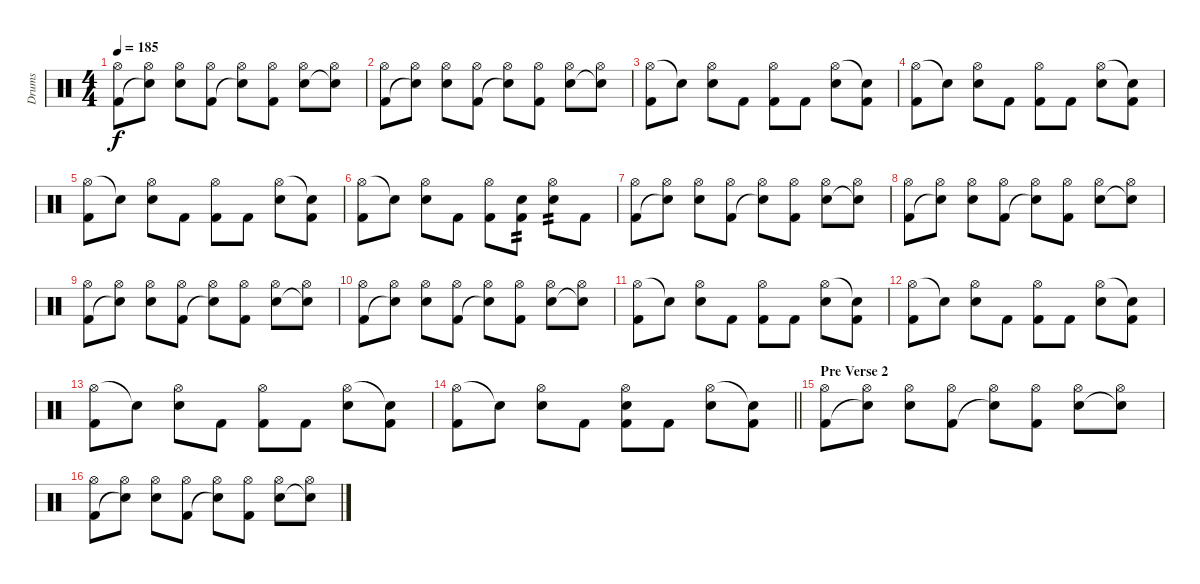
\track ("Drums" "Drums") {instrument percussion}
\staff {score}
\articulation defaults
\ts (4 4)
\tempo 185
\clef neutral
\ks c
("Hi-Hat (open)" "Kick (hit) 2").8{dy f} ("Hi-Hat (open)" "Snare (hit)"{t}).8 ("Hi-Hat (open)" "Electric Snare (hit)").8 ("Hi-Hat (open)" "Kick (hit) 2").8 ("Hi-Hat (open)" "Snare (hit)"{t}).8 ("Hi-Hat (open)" "Kick (hit) 2").8 ("Hi-Hat (open)" "Electric Snare (hit)").8 ("Hi-Hat (open)" "Snare (hit)"{t}).8 |
("Hi-Hat (open)" "Kick (hit) 2").8 ("Hi-Hat (open)" "Snare (hit)"{t}).8 ("Hi-Hat (open)" "Electric Snare (hit)").8 ("Hi-Hat (open)" "Kick (hit) 2").8 ("Hi-Hat (open)" "Snare (hit)"{t}).8 ("Hi-Hat (open)" "Kick (hit) 2").8 ("Hi-Hat (open)" "Electric Snare (hit)").8 ("Hi-Hat (open)" "Snare (hit)"{t}).8 |
("Hi-Hat (open)" "Kick (hit) 2").8 "Snare (hit)"{t}.8 ("Hi-Hat (open)" "Electric Snare (hit)").8 "Kick (hit) 2".8 ("Hi-Hat (open)" "Kick (hit) 2").8 "Kick (hit) 2".8 ("Hi-Hat (open)" "Electric Snare (hit)").8 ("Snare (hit)"{t} "Kick (hit) 2").8 |
("Hi-Hat (open)" "Kick (hit) 2").8 "Snare (hit)"{t}.8 ("Hi-Hat (open)" "Electric Snare (hit)").8 "Kick (hit) 2".8 ("Hi-Hat (open)" "Kick (hit) 2").8 "Kick (hit) 2".8 ("Hi-Hat (open)" "Electric Snare (hit)").8 ("Snare (hit)"{t} "Kick (hit) 2").8 |
("Hi-Hat (open)" "Kick (hit) 2").8 "Snare (hit)"{t}.8 ("Hi-Hat (open)" "Electric Snare (hit)").8 "Kick (hit) 2".8 ("Hi-Hat (open)" "Kick (hit) 2").8 "Kick (hit) 2".8 ("Hi-Hat (open)" "Electric Snare (hit)").8 ("Snare (hit)"{t} "Kick (hit) 2").8 |
("Hi-Hat (open)" "Kick (hit) 2").8 "Snare (hit)"{t}.8 ("Hi-Hat (open)" "Electric Snare (hit)").8 "Kick (hit) 2".8 ("Hi-Hat (open)" "Kick (hit) 2").8 ("Electric Snare (hit)" "Kick (hit) 2").8{tp 2} ("Hi-Hat (open)" "Electric Snare (hit)").8{tp 2} "Kick (hit) 2".8 |
("Hi-Hat (open)" "Kick (hit) 2").8 ("Hi-Hat (open)" "Snare (hit)"{t}).8 ("Hi-Hat (open)" "Electric Snare (hit)").8 ("Hi-Hat (open)" "Kick (hit) 2").8 ("Hi-Hat (open)" "Snare (hit)"{t}).8 ("Hi-Hat (open)" "Kick (hit) 2").8 ("Hi-Hat (open)" "Electric Snare (hit)").8 ("Hi-Hat (open)" "Snare (hit)"{t}).8 |
("Hi-Hat (open)" "Kick (hit) 2").8 ("Hi-Hat (open)" "Snare (hit)"{t}).8 ("Hi-Hat (open)" "Electric Snare (hit)").8 ("Hi-Hat (open)" "Kick (hit) 2").8 ("Hi-Hat (open)" "Snare (hit)"{t}).8 ("Hi-Hat (open)" "Kick (hit) 2").8 ("Hi-Hat (open)" "Electric Snare (hit)").8 ("Hi-Hat (open)" "Snare (hit)"{t}).8 |
("Hi-Hat (open)" "Kick (hit) 2").8 ("Hi-Hat (open)" "Snare (hit)"{t}).8 ("Hi-Hat (open)" "Electric Snare (hit)").8 ("Hi-Hat (open)" "Kick (hit) 2").8 ("Hi-Hat (open)" "Snare (hit)"{t}).8 ("Hi-Hat (open)" "Kick (hit) 2").8 ("Hi-Hat (open)" "Electric Snare (hit)").8 ("Hi-Hat (open)" "Snare (hit)"{t}).8 |
("Hi-Hat (open)" "Kick (hit) 2").8 ("Hi-Hat (open)" "Snare (hit)"{t}).8 ("Hi-Hat (open)" "Electric Snare (hit)").8 ("Hi-Hat (open)" "Kick (hit) 2").8 ("Hi-Hat (open)" "Snare (hit)"{t}).8 ("Hi-Hat (open)" "Kick (hit) 2").8 ("Hi-Hat (open)" "Electric Snare (hit)").8 ("Hi-Hat (open)" "Snare (hit)"{t}).8 |
("Hi-Hat (open)" "Kick (hit) 2").8 "Snare (hit)"{t}.8 ("Hi-Hat (open)" "Electric Snare (hit)").8 "Kick (hit) 2".8 ("Hi-Hat (open)" "Kick (hit) 2").8 "Kick (hit) 2".8 ("Hi-Hat (open)" "Electric Snare (hit)").8 ("Snare (hit)"{t} "Kick (hit) 2").8 |
("Hi-Hat (open)" "Kick (hit) 2").8 "Snare (hit)"{t}.8 ("Hi-Hat (open)" "Electric Snare (hit)").8 "Kick (hit) 2".8 ("Hi-Hat (open)" "Kick (hit) 2").8 "Kick (hit) 2".8 ("Hi-Hat (open)" "Electric Snare (hit)").8 ("Snare (hit)"{t} "Kick (hit) 2").8 |
("Hi-Hat (open)" "Kick (hit) 2").8 "Snare (hit)"{t}.8 ("Hi-Hat (open)" "Electric Snare (hit)").8 "Kick (hit) 2".8 ("Hi-Hat (open)" "Kick (hit) 2").8 "Kick (hit) 2".8 ("Hi-Hat (open)" "Electric Snare (hit)").8 ("Snare (hit)"{t} "Kick (hit) 2").8 |
\barLineRight lightlight
("Hi-Hat (open)" "Kick (hit) 2").8 "Snare (hit)"{t}.8 ("Hi-Hat (open)" "Electric Snare (hit)").8 "Kick (hit) 2".8 ("Hi-Hat (open)" "Electric Snare (hit)" "Kick (hit) 2").8 "Kick (hit) 2".8 ("Hi-Hat (open)" "Electric Snare (hit)").8 ("Snare (hit)"{t} "Kick (hit) 2").8 |
\section ("" "Pre Verse 2")
("Hi-Hat (open)" "Kick (hit) 2").8 ("Hi-Hat (open)" "Snare (hit)"{t}).8 ("Hi-Hat (open)" "Electric Snare (hit)").8 ("Hi-Hat (open)" "Kick (hit) 2").8 ("Hi-Hat (open)" "Snare (hit)"{t}).8 ("Hi-Hat (open)" "Kick (hit) 2").8 ("Hi-Hat (open)" "Electric Snare (hit)").8 ("Hi-Hat (open)" "Snare (hit)"{t}).8 |
("Hi-Hat (open)" "Kick (hit) 2").8 ("Hi-Hat (open)" "Snare (hit)"{t}).8 ("Hi-Hat (open)" "Electric Snare (hit)").8 ("Hi-Hat (open)" "Kick (hit) 2").8 ("Hi-Hat (open)" "Snare (hit)"{t}).8 ("Hi-Hat (open)" "Kick (hit) 2").8 ("Hi-Hat (open)" "Electric Snare (hit)").8 ("Hi-Hat (open)" "Snare (hit)"{t}).8
